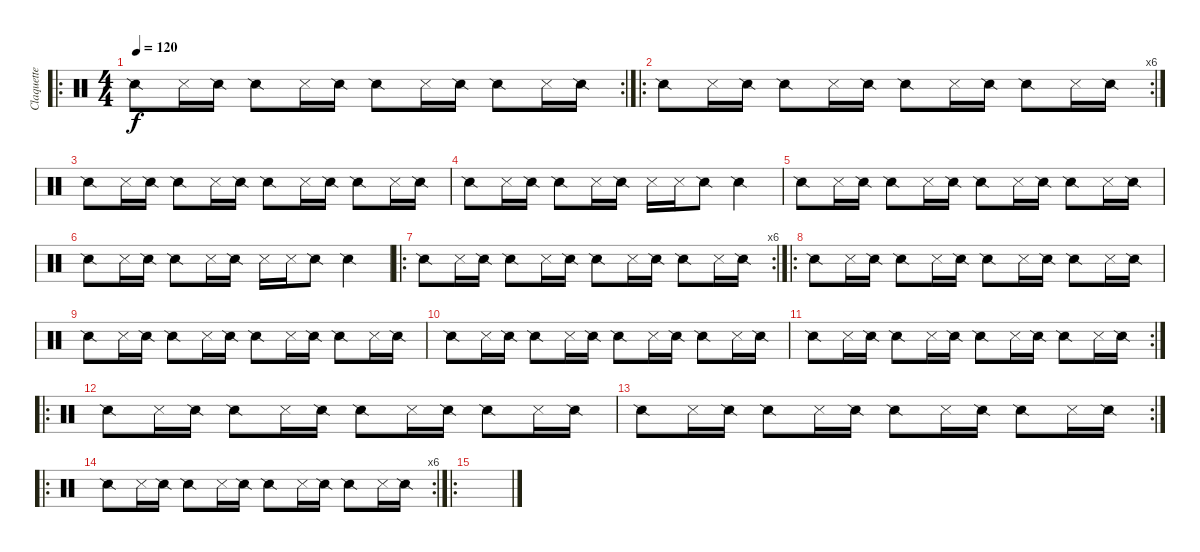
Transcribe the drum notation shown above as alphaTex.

\track ("Claquette" "Claquette") {instrument percussion}
\staff {score}
\articulation defaults
\ro
\rc 2
\ts (4 4)
\tempo 120
\clef neutral
\ks c "Snare (side stick) 2".8{dy f} "Metronome (hit)".16 "Snare (side stick) 2".16 "Snare (side stick) 2".8 "Metronome (hit)".16 "Snare (side stick) 2".16 "Snare (side stick) 2".8 "Metronome (hit)".16 "Snare (side stick) 2".16 "Snare (side stick) 2".8 "Metronome (hit)".16 "Snare (side stick) 2".16
|
\ro
\rc 6 "Snare (side stick) 2".8 "Metronome (hit)".16 "Snare (side stick) 2".16 "Snare (side stick) 2".8 "Metronome (hit)".16 "Snare (side stick) 2".16 "Snare (side stick) 2".8 "Metronome (hit)".16 "Snare (side stick) 2".16 "Snare (side stick) 2".8 "Metronome (hit)".16 "Snare (side stick) 2".16
|
"Snare (side stick) 2".8 "Metronome (hit)".16 "Snare (side stick) 2".16 "Snare (side stick) 2".8 "Metronome (hit)".16 "Snare (side stick) 2".16 "Snare (side stick) 2".8 "Metronome (hit)".16 "Snare (side stick) 2".16 "Snare (side stick) 2".8 "Metronome (hit)".16 "Snare (side stick) 2".16 |
"Snare (side stick) 2".8 "Metronome (hit)".16 "Snare (side stick) 2".16 "Snare (side stick) 2".8 "Metronome (hit)".16 "Snare (side stick) 2".16 "Metronome (hit)".16 "Metronome (hit)".16 "Snare (side stick) 2".8 "Snare (side stick) 2".4 |
"Snare (side stick) 2".8 "Metronome (hit)".16 "Snare (side stick) 2".16 "Snare (side stick) 2".8 "Metronome (hit)".16 "Snare (side stick) 2".16 "Snare (side stick) 2".8 "Metronome (hit)".16 "Snare (side stick) 2".16 "Snare (side stick) 2".8 "Metronome (hit)".16 "Snare (side stick) 2".16 |
"Snare (side stick) 2".8 "Metronome (hit)".16 "Snare (side stick) 2".16 "Snare (side stick) 2".8 "Metronome (hit)".16 "Snare (side stick) 2".16 "Metronome (hit)".16 "Metronome (hit)".16 "Snare (side stick) 2".8 "Snare (side stick) 2".4 |
\ro
\rc 6 "Snare (side stick) 2".8 "Metronome (hit)".16 "Snare (side stick) 2".16 "Snare (side stick) 2".8 "Metronome (hit)".16 "Snare (side stick) 2".16 "Snare (side stick) 2".8 "Metronome (hit)".16 "Snare (side stick) 2".16 "Snare (side stick) 2".8 "Metronome (hit)".16 "Snare (side stick) 2".16
|
\ro "Snare (side stick) 2".8 "Metronome (hit)".16 "Snare (side stick) 2".16 "Snare (side stick) 2".8 "Metronome (hit)".16 "Snare (side stick) 2".16 "Snare (side stick) 2".8 "Metronome (hit)".16 "Snare (side stick) 2".16 "Snare (side stick) 2".8 "Metronome (hit)".16 "Snare (side stick) 2".16
|
"Snare (side stick) 2".8 "Metronome (hit)".16 "Snare (side stick) 2".16 "Snare (side stick) 2".8 "Metronome (hit)".16 "Snare (side stick) 2".16 "Snare (side stick) 2".8 "Metronome (hit)".16 "Snare (side stick) 2".16 "Snare (side stick) 2".8 "Metronome (hit)".16 "Snare (side stick) 2".16 |
"Snare (side stick) 2".8 "Metronome (hit)".16 "Snare (side stick) 2".16 "Snare (side stick) 2".8 "Metronome (hit)".16 "Snare (side stick) 2".16 "Snare (side stick) 2".8 "Metronome (hit)".16 "Snare (side stick) 2".16 "Snare (side stick) 2".8 "Metronome (hit)".16 "Snare (side stick) 2".16 |
\rc 2 "Snare (side stick) 2".8 "Metronome (hit)".16 "Snare (side stick) 2".16 "Snare (side stick) 2".8 "Metronome (hit)".16 "Snare (side stick) 2".16 "Snare (side stick) 2".8 "Metronome (hit)".16 "Snare (side stick) 2".16 "Snare (side stick) 2".8 "Metronome (hit)".16 "Snare (side stick) 2".16
|
\ro "Snare (side stick) 2".8 "Metronome (hit)".16 "Snare (side stick) 2".16 "Snare (side stick) 2".8 "Metronome (hit)".16 "Snare (side stick) 2".16 "Snare (side stick) 2".8 "Metronome (hit)".16 "Snare (side stick) 2".16 "Snare (side stick) 2".8 "Metronome (hit)".16 "Snare (side stick) 2".16
|
\rc 2 "Snare (side stick) 2".8 "Metronome (hit)".16 "Snare (side stick) 2".16 "Snare (side stick) 2".8 "Metronome (hit)".16 "Snare (side stick) 2".16 "Snare (side stick) 2".8 "Metronome (hit)".16 "Snare (side stick) 2".16 "Snare (side stick) 2".8 "Metronome (hit)".16 "Snare (side stick) 2".16
|
\ro
\rc 6 "Snare (side stick) 2".8 "Metronome (hit)".16 "Snare (side stick) 2".16 "Snare (side stick) 2".8 "Metronome (hit)".16 "Snare (side stick) 2".16 "Snare (side stick) 2".8 "Metronome (hit)".16 "Snare (side stick) 2".16 "Snare (side stick) 2".8 "Metronome (hit)".16 "Snare (side stick) 2".16
|
\ro
